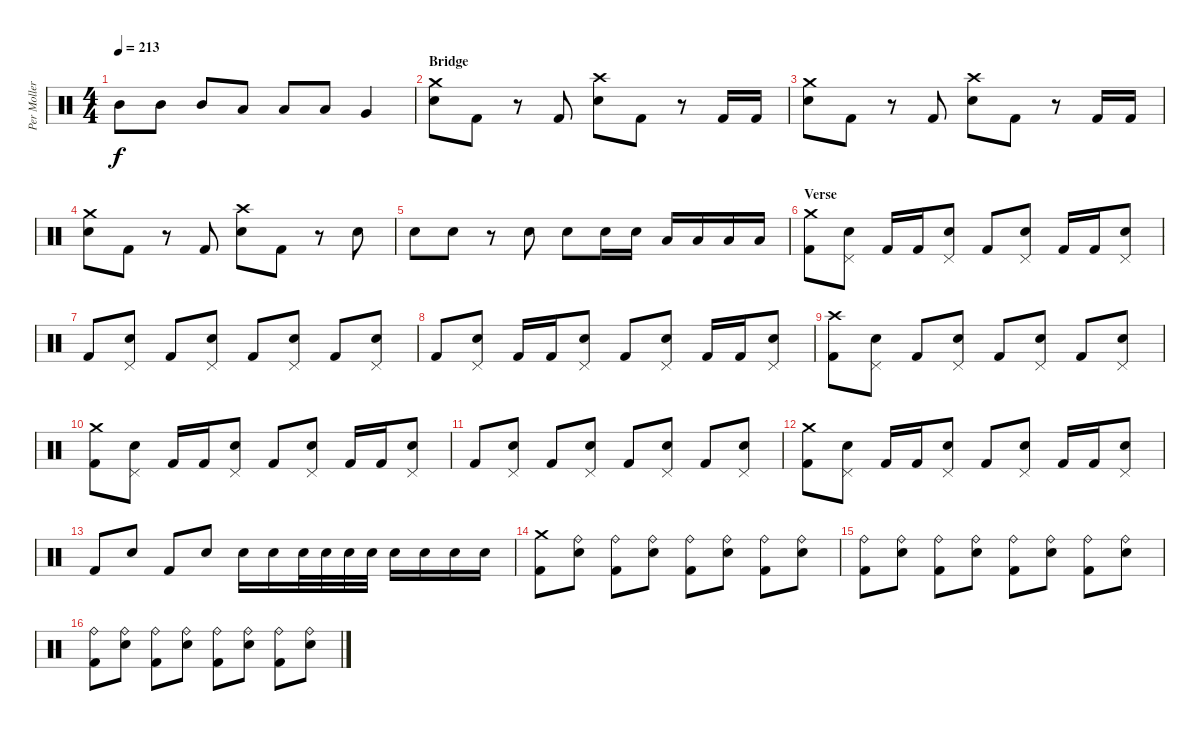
\track ("Per Moller Jensen" "Per Moller") {instrument percussion}
\staff {score}
\articulation defaults
\ts (4 4)
\tempo 213
\clef neutral
\ks c "Mid Tom (hit)".8{dy f} "Mid Tom (hit)".8 "Mid Tom (hit)".8 "Low Tom (hit)".8 "Low Tom (hit)".8 "Low Tom (hit)".8 "Very Low Tom (hit)".4
|
\section ("" "Bridge")
("Crash medium (hit)" "Snare (hit) 2").8 "Kick (hit) 2".8 r.8 "Kick (hit) 2".8 ("Crash high (hit)" "Snare (hit) 2").8 "Kick (hit) 2".8 r.8 "Kick (hit) 2".16 "Kick (hit) 2".16 |
("Crash medium (hit)" "Snare (hit) 2").8 "Kick (hit) 2".8 r.8 "Kick (hit) 2".8 ("Crash high (hit)" "Snare (hit) 2").8 "Kick (hit) 2".8 r.8 "Kick (hit) 2".16 "Kick (hit) 2".16 |
("Crash medium (hit)" "Snare (hit) 2").8 "Kick (hit) 2".8 r.8 "Kick (hit) 2".8 ("Crash high (hit)" "Snare (hit) 2").8 "Kick (hit) 2".8 r.8 "Snare (hit) 2".8 |
"Snare (hit) 2".8 "Snare (hit) 2".8 r.8 "Snare (hit) 2".8 "Snare (hit) 2".8 "Snare (hit) 2".16 "Snare (hit) 2".16 "Low Tom (hit)".16 "Low Tom (hit)".16 "Low Floor Tom (hit)".16 "Low Floor Tom (hit)".16 |
\section ("" "Verse")
("Crash medium (hit)" "Kick (hit) 2").8 ("Pedal Hi-Hat (hit)" "Snare (hit) 2").8 "Kick (hit) 2".16 "Kick (hit) 2".16 ("Pedal Hi-Hat (hit)" "Snare (hit) 2").8 "Kick (hit) 2".8 ("Pedal Hi-Hat (hit)" "Snare (hit) 2").8 "Kick (hit) 2".16 "Kick (hit) 2".16 ("Pedal Hi-Hat (hit)" "Snare (hit) 2").8 |
"Kick (hit) 2".8 ("Pedal Hi-Hat (hit)" "Snare (hit) 2").8 "Kick (hit) 2".8 ("Pedal Hi-Hat (hit)" "Snare (hit) 2").8 "Kick (hit) 2".8 ("Pedal Hi-Hat (hit)" "Snare (hit) 2").8 "Kick (hit) 2".8 ("Pedal Hi-Hat (hit)" "Snare (hit) 2").8 |
"Kick (hit) 2".8 ("Pedal Hi-Hat (hit)" "Snare (hit) 2").8 "Kick (hit) 2".16 "Kick (hit) 2".16 ("Pedal Hi-Hat (hit)" "Snare (hit) 2").8 "Kick (hit) 2".8 ("Pedal Hi-Hat (hit)" "Snare (hit) 2").8 "Kick (hit) 2".16 "Kick (hit) 2".16 ("Pedal Hi-Hat (hit)" "Snare (hit) 2").8 |
("Crash high (hit)" "Kick (hit) 2").8 ("Pedal Hi-Hat (hit)" "Snare (hit) 2").8 "Kick (hit) 2".8 ("Pedal Hi-Hat (hit)" "Snare (hit) 2").8 "Kick (hit) 2".8 ("Pedal Hi-Hat (hit)" "Snare (hit) 2").8 "Kick (hit) 2".8 ("Pedal Hi-Hat (hit)" "Snare (hit) 2").8 |
("Crash medium (hit)" "Kick (hit) 2").8 ("Pedal Hi-Hat (hit)" "Snare (hit) 2").8 "Kick (hit) 2".16 "Kick (hit) 2".16 ("Pedal Hi-Hat (hit)" "Snare (hit) 2").8 "Kick (hit) 2".8 ("Pedal Hi-Hat (hit)" "Snare (hit) 2").8 "Kick (hit) 2".16 "Kick (hit) 2".16 ("Pedal Hi-Hat (hit)" "Snare (hit) 2").8 |
"Kick (hit) 2".8 ("Pedal Hi-Hat (hit)" "Snare (hit) 2").8 "Kick (hit) 2".8 ("Pedal Hi-Hat (hit)" "Snare (hit) 2").8 "Kick (hit) 2".8 ("Pedal Hi-Hat (hit)" "Snare (hit) 2").8 "Kick (hit) 2".8 ("Pedal Hi-Hat (hit)" "Snare (hit) 2").8 |
("Crash medium (hit)" "Kick (hit) 2").8 ("Pedal Hi-Hat (hit)" "Snare (hit) 2").8 "Kick (hit) 2".16 "Kick (hit) 2".16 ("Pedal Hi-Hat (hit)" "Snare (hit) 2").8 "Kick (hit) 2".8 ("Pedal Hi-Hat (hit)" "Snare (hit) 2").8 "Kick (hit) 2".16 "Kick (hit) 2".16 ("Pedal Hi-Hat (hit)" "Snare (hit) 2").8 |
"Kick (hit) 2".8 "Snare (hit) 2".8 "Kick (hit) 2".8 "Snare (hit) 2".8 "Snare (hit) 2".16 "Snare (hit) 2".16 "Snare (hit) 2".32 "Snare (hit) 2".32 "Snare (hit) 2".32 "Snare (hit) 2".32 "Snare (hit) 2".16 "Snare (hit) 2".16 "Snare (hit) 2".16 "Snare (hit) 2".16 |
("Crash medium (hit)" "Kick (hit) 2").8 ("Ride (bell)" "Snare (hit) 2").8 ("Ride (bell)" "Kick (hit) 2").8 ("Ride (bell)" "Snare (hit) 2").8 ("Ride (bell)" "Kick (hit) 2").8 ("Ride (bell)" "Snare (hit) 2").8 ("Ride (bell)" "Kick (hit) 2").8 ("Ride (bell)" "Snare (hit) 2").8 |
("Ride (bell)" "Kick (hit) 2").8 ("Ride (bell)" "Snare (hit) 2").8 ("Ride (bell)" "Kick (hit) 2").8 ("Ride (bell)" "Snare (hit) 2").8 ("Ride (bell)" "Kick (hit) 2").8 ("Ride (bell)" "Snare (hit) 2").8 ("Ride (bell)" "Kick (hit) 2").8 ("Ride (bell)" "Snare (hit) 2").8 |
("Ride (bell)" "Kick (hit) 2").8 ("Ride (bell)" "Snare (hit) 2").8 ("Ride (bell)" "Kick (hit) 2").8 ("Ride (bell)" "Snare (hit) 2").8 ("Ride (bell)" "Kick (hit) 2").8 ("Ride (bell)" "Snare (hit) 2").8 ("Ride (bell)" "Kick (hit) 2").8 ("Ride (bell)" "Snare (hit) 2").8
